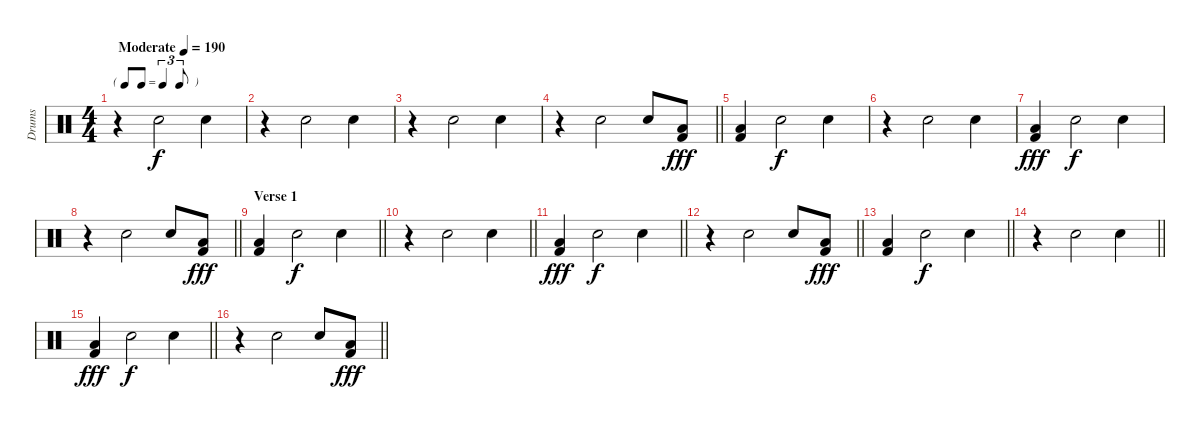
\track ("Drums" "Drums") {instrument percussion}
\staff {score}
\articulation defaults
\ts (4 4)
\tf triplet8th
\tempo (190 "Moderate")
\clef neutral
\ks c
r.4{dy f} "Hand Clap (hit)".2 "Hand Clap (hit)".4 |
r.4 "Hand Clap (hit)".2 "Hand Clap (hit)".4 |
r.4 "Hand Clap (hit)".2 "Hand Clap (hit)".4 |
\barLineRight lightlight
r.4 "Hand Clap (hit)".2 "Hand Clap (hit)".8 ("Low Tom (hit)" "Kick (hit) 2").8{dy fff} |
("Low Tom (hit)" "Kick (hit) 2").4 "Hand Clap (hit)".2{dy f} "Hand Clap (hit)".4 |
r.4 "Hand Clap (hit)".2 "Hand Clap (hit)".4 |
("Low Tom (hit)" "Kick (hit) 2").4{dy fff} "Hand Clap (hit)".2{dy f} "Hand Clap (hit)".4 |
\barLineRight lightlight
r.4 "Hand Clap (hit)".2 "Hand Clap (hit)".8 ("Low Tom (hit)" "Kick (hit) 2").8{dy fff} |
\section ("" "Verse 1")
\barLineRight lightlight
("Low Tom (hit)" "Kick (hit) 2").4 "Hand Clap (hit)".2{dy f} "Hand Clap (hit)".4 |
\barLineRight lightlight
r.4 "Hand Clap (hit)".2 "Hand Clap (hit)".4 |
\barLineRight lightlight
("Low Tom (hit)" "Kick (hit) 2").4{dy fff} "Hand Clap (hit)".2{dy f} "Hand Clap (hit)".4 |
\barLineRight lightlight
r.4 "Hand Clap (hit)".2 "Hand Clap (hit)".8 ("Low Tom (hit)" "Kick (hit) 2").8{dy fff} |
\barLineRight lightlight
("Low Tom (hit)" "Kick (hit) 2").4 "Hand Clap (hit)".2{dy f} "Hand Clap (hit)".4 |
\barLineRight lightlight
r.4 "Hand Clap (hit)".2 "Hand Clap (hit)".4 |
\barLineRight lightlight
("Low Tom (hit)" "Kick (hit) 2").4{dy fff} "Hand Clap (hit)".2{dy f} "Hand Clap (hit)".4 |
\barLineRight lightlight
r.4 "Hand Clap (hit)".2 "Hand Clap (hit)".8 ("Low Tom (hit)" "Kick (hit) 2").8{dy fff}
